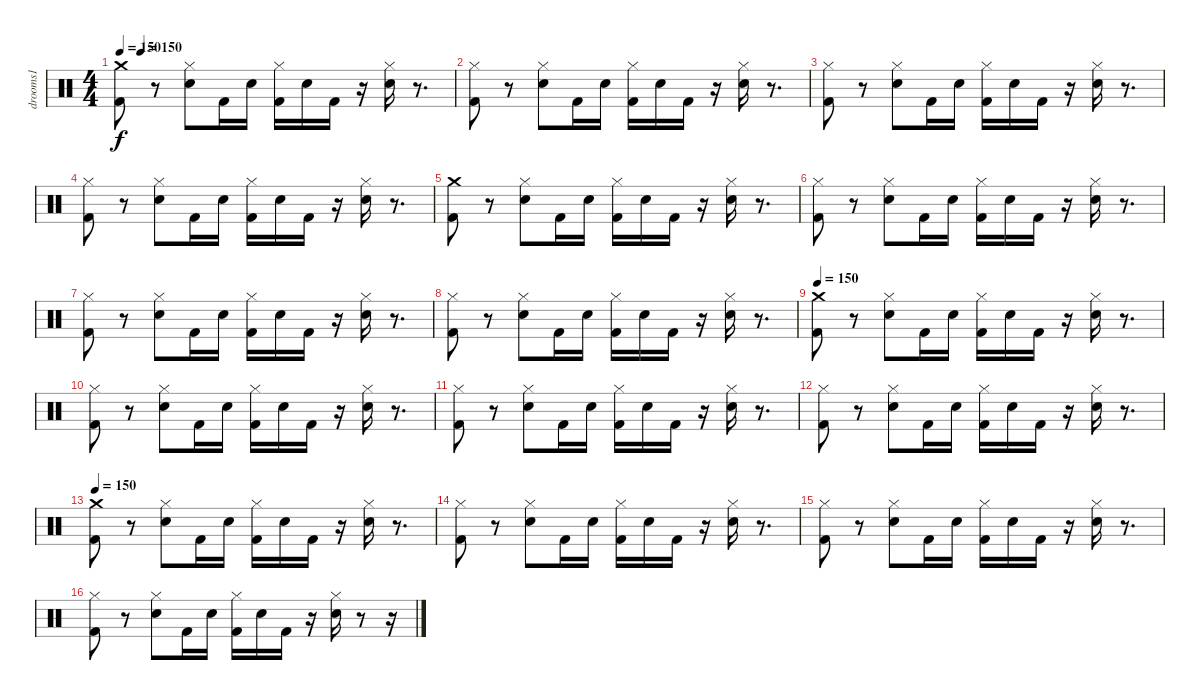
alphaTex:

\track ("drooms1" "drooms1") {instrument percussion}
\staff {score}
\articulation defaults
\ts (4 4)
\tempo 150
\tempo (150 0.0625)
\clef neutral
\ks c
("Crash medium (hit)" "Kick (hit) 2").8{dy f} r.8 ("Hi-Hat (closed)" "Electric Snare (hit)").8 "Kick (hit) 2".16 "Electric Snare (hit)".16 ("Hi-Hat (closed)" "Kick (hit) 2").16 "Electric Snare (hit)".16 "Kick (hit) 2".16 r.16 ("Hi-Hat (closed)" "Electric Snare (hit)").16 r.8{d} |
("Hi-Hat (closed)" "Kick (hit) 2").8 r.8 ("Hi-Hat (closed)" "Electric Snare (hit)").8 "Kick (hit) 2".16 "Electric Snare (hit)".16 ("Hi-Hat (closed)" "Kick (hit) 2").16 "Electric Snare (hit)".16 "Kick (hit) 2".16 r.16 ("Hi-Hat (closed)" "Electric Snare (hit)").16 r.8{d} |
("Hi-Hat (closed)" "Kick (hit) 2").8 r.8 ("Hi-Hat (closed)" "Electric Snare (hit)").8 "Kick (hit) 2".16 "Electric Snare (hit)".16 ("Hi-Hat (closed)" "Kick (hit) 2").16 "Electric Snare (hit)".16 "Kick (hit) 2".16 r.16 ("Hi-Hat (closed)" "Electric Snare (hit)").16 r.8{d} |
("Hi-Hat (closed)" "Kick (hit) 2").8 r.8 ("Hi-Hat (closed)" "Electric Snare (hit)").8 "Kick (hit) 2".16 "Electric Snare (hit)".16 ("Hi-Hat (closed)" "Kick (hit) 2").16 "Electric Snare (hit)".16 "Kick (hit) 2".16 r.16 ("Hi-Hat (closed)" "Electric Snare (hit)").16 r.8{d} |
("Crash medium (hit)" "Kick (hit) 2").8 r.8 ("Hi-Hat (closed)" "Electric Snare (hit)").8 "Kick (hit) 2".16 "Electric Snare (hit)".16 ("Hi-Hat (closed)" "Kick (hit) 2").16 "Electric Snare (hit)".16 "Kick (hit) 2".16 r.16 ("Hi-Hat (closed)" "Electric Snare (hit)").16 r.8{d} |
("Hi-Hat (closed)" "Kick (hit) 2").8 r.8 ("Hi-Hat (closed)" "Electric Snare (hit)").8 "Kick (hit) 2".16 "Electric Snare (hit)".16 ("Hi-Hat (closed)" "Kick (hit) 2").16 "Electric Snare (hit)".16 "Kick (hit) 2".16 r.16 ("Hi-Hat (closed)" "Electric Snare (hit)").16 r.8{d} |
("Hi-Hat (closed)" "Kick (hit) 2").8 r.8 ("Hi-Hat (closed)" "Electric Snare (hit)").8 "Kick (hit) 2".16 "Electric Snare (hit)".16 ("Hi-Hat (closed)" "Kick (hit) 2").16 "Electric Snare (hit)".16 "Kick (hit) 2".16 r.16 ("Hi-Hat (closed)" "Electric Snare (hit)").16 r.8{d} |
("Hi-Hat (closed)" "Kick (hit) 2").8 r.8 ("Hi-Hat (closed)" "Electric Snare (hit)").8 "Kick (hit) 2".16 "Electric Snare (hit)".16 ("Hi-Hat (closed)" "Kick (hit) 2").16 "Electric Snare (hit)".16 "Kick (hit) 2".16 r.16 ("Hi-Hat (closed)" "Electric Snare (hit)").16 r.8{d} |
\tempo 150
("Crash medium (hit)" "Kick (hit) 2").8 r.8 ("Hi-Hat (closed)" "Electric Snare (hit)").8 "Kick (hit) 2".16 "Electric Snare (hit)".16 ("Hi-Hat (closed)" "Kick (hit) 2").16 "Electric Snare (hit)".16 "Kick (hit) 2".16 r.16 ("Hi-Hat (closed)" "Electric Snare (hit)").16 r.8{d} |
("Hi-Hat (closed)" "Kick (hit) 2").8 r.8 ("Hi-Hat (closed)" "Electric Snare (hit)").8 "Kick (hit) 2".16 "Electric Snare (hit)".16 ("Hi-Hat (closed)" "Kick (hit) 2").16 "Electric Snare (hit)".16 "Kick (hit) 2".16 r.16 ("Hi-Hat (closed)" "Electric Snare (hit)").16 r.8{d} |
("Hi-Hat (closed)" "Kick (hit) 2").8 r.8 ("Hi-Hat (closed)" "Electric Snare (hit)").8 "Kick (hit) 2".16 "Electric Snare (hit)".16 ("Hi-Hat (closed)" "Kick (hit) 2").16 "Electric Snare (hit)".16 "Kick (hit) 2".16 r.16 ("Hi-Hat (closed)" "Electric Snare (hit)").16 r.8{d} |
("Hi-Hat (closed)" "Kick (hit) 2").8 r.8 ("Hi-Hat (closed)" "Electric Snare (hit)").8 "Kick (hit) 2".16 "Electric Snare (hit)".16 ("Hi-Hat (closed)" "Kick (hit) 2").16 "Electric Snare (hit)".16 "Kick (hit) 2".16 r.16 ("Hi-Hat (closed)" "Electric Snare (hit)").16 r.8{d} |
\tempo 150
("Crash medium (hit)" "Kick (hit) 2").8 r.8 ("Hi-Hat (closed)" "Electric Snare (hit)").8 "Kick (hit) 2".16 "Electric Snare (hit)".16 ("Hi-Hat (closed)" "Kick (hit) 2").16 "Electric Snare (hit)".16 "Kick (hit) 2".16 r.16 ("Hi-Hat (closed)" "Electric Snare (hit)").16 r.8{d} |
("Hi-Hat (closed)" "Kick (hit) 2").8 r.8 ("Hi-Hat (closed)" "Electric Snare (hit)").8 "Kick (hit) 2".16 "Electric Snare (hit)".16 ("Hi-Hat (closed)" "Kick (hit) 2").16 "Electric Snare (hit)".16 "Kick (hit) 2".16 r.16 ("Hi-Hat (closed)" "Electric Snare (hit)").16 r.8{d} |
("Hi-Hat (closed)" "Kick (hit) 2").8 r.8 ("Hi-Hat (closed)" "Electric Snare (hit)").8 "Kick (hit) 2".16 "Electric Snare (hit)".16 ("Hi-Hat (closed)" "Kick (hit) 2").16 "Electric Snare (hit)".16 "Kick (hit) 2".16 r.16 ("Hi-Hat (closed)" "Electric Snare (hit)").16 r.8{d} |
("Hi-Hat (closed)" "Kick (hit) 2").8 r.8 ("Hi-Hat (closed)" "Electric Snare (hit)").8 "Kick (hit) 2".16 "Electric Snare (hit)".16 ("Hi-Hat (closed)" "Kick (hit) 2").16 "Electric Snare (hit)".16 "Kick (hit) 2".16 r.16 ("Hi-Hat (closed)" "Electric Snare (hit)").16 r.8 r.16
